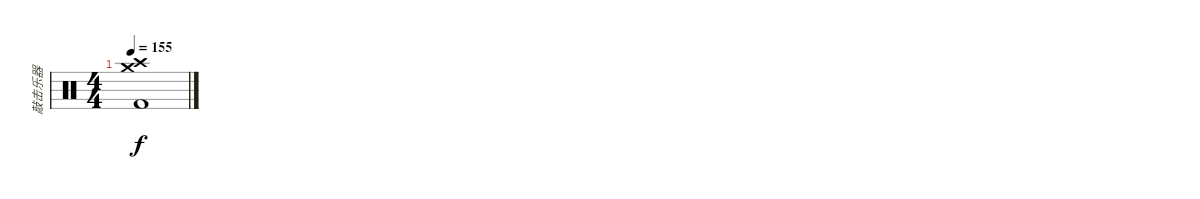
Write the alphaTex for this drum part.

\track ("敲击乐器" "敲击乐器") {instrument percussion}
\staff {score}
\articulation defaults
\ts (4 4)
\tempo 155
\clef neutral
\ks c
("Crash medium (hit)" "Crash high (hit)" "Kick (hit) 2").1{dy f}
